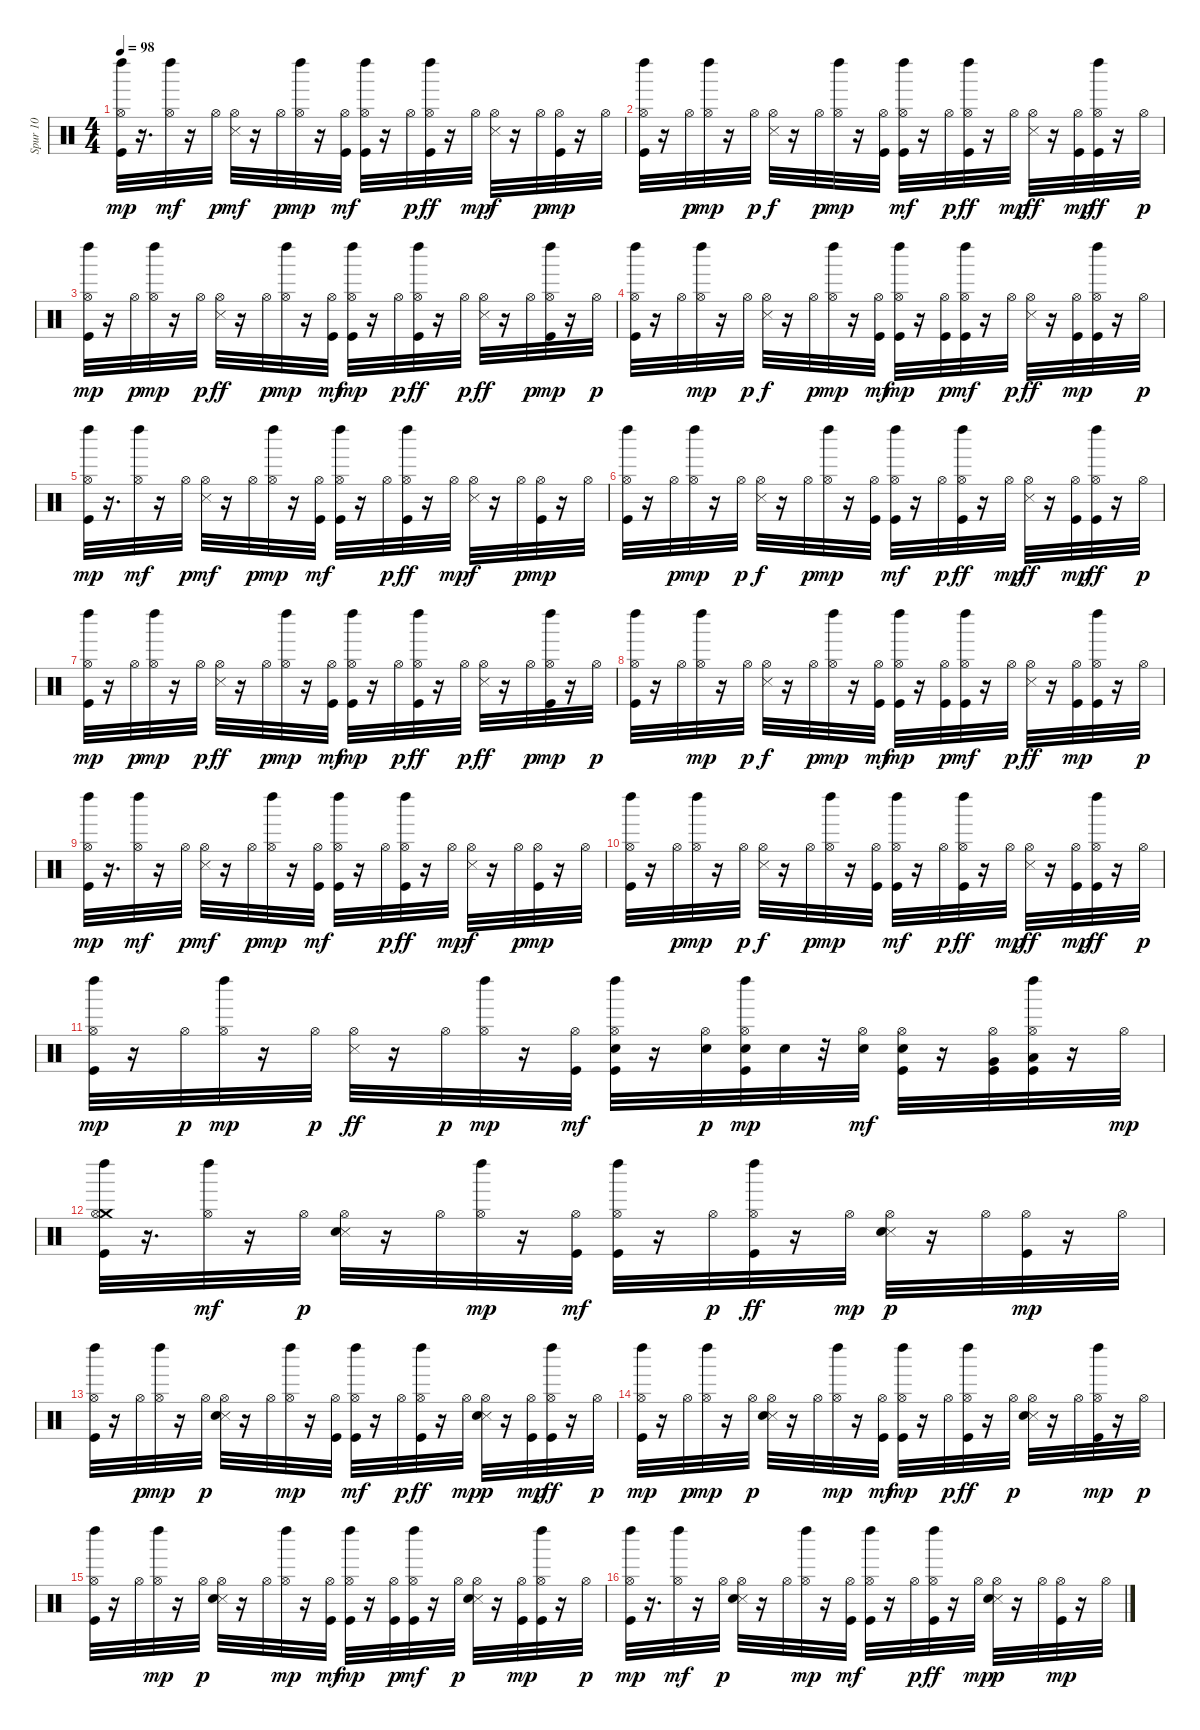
\track ("Spur 10" "Spur 10") {instrument percussion}
\staff {score}
\articulation defaults
\ts (4 4)
\tempo 98
\clef neutral
\ks c
("Hi-Hat (open)" "Kick (hit)" "Left Maraca (hit)").32{dy mp} r.16{d} ("Hi-Hat (open)" "Left Maraca (hit)").32{dy mf} r.16 "Hi-Hat (open)".32{dy p} ("Hi-Hat (open)" "Snare (side stick) 3").32{dy mf} r.16 "Hi-Hat (open)".32{dy p} ("Hi-Hat (open)" "Left Maraca (hit)").32{dy mp} r.16 ("Hi-Hat (open)" "Kick (hit)").32{dy mf} ("Hi-Hat (open)" "Kick (hit)" "Left Maraca (hit)").32 r.16 "Hi-Hat (open)".32{dy p} ("Hi-Hat (open)" "Kick (hit)" "Left Maraca (hit)").32{dy ff} r.16 "Hi-Hat (open)".32{dy mp} ("Hi-Hat (open)" "Snare (side stick) 3").32{dy f} r.16 "Hi-Hat (open)".32{dy p} ("Hi-Hat (open)" "Kick (hit)").32{dy mp} r.16 "Hi-Hat (open)".32 |
("Hi-Hat (open)" "Kick (hit)" "Left Maraca (hit)").32 r.16 "Hi-Hat (open)".32{dy p} ("Hi-Hat (open)" "Left Maraca (hit)").32{dy mp} r.16 "Hi-Hat (open)".32{dy p} ("Hi-Hat (open)" "Snare (side stick) 3").32{dy f} r.16 "Hi-Hat (open)".32{dy p} ("Hi-Hat (open)" "Left Maraca (hit)").32{dy mp} r.16 ("Hi-Hat (open)" "Kick (hit)").32 ("Hi-Hat (open)" "Kick (hit)" "Left Maraca (hit)").32{dy mf} r.16 "Hi-Hat (open)".32{dy p} ("Hi-Hat (open)" "Kick (hit)" "Left Maraca (hit)").32{dy ff} r.16 "Hi-Hat (open)".32{dy mp} ("Hi-Hat (open)" "Snare (side stick) 3").32{dy ff} r.16 ("Hi-Hat (open)" "Kick (hit)").32{dy mp} ("Hi-Hat (open)" "Kick (hit)" "Left Maraca (hit)").32{dy ff} r.16 "Hi-Hat (open)".32{dy p} |
("Hi-Hat (open)" "Kick (hit)" "Left Maraca (hit)").32{dy mp} r.16 "Hi-Hat (open)".32{dy p} ("Hi-Hat (open)" "Left Maraca (hit)").32{dy mp} r.16 "Hi-Hat (open)".32{dy p} ("Hi-Hat (open)" "Snare (side stick) 3").32{dy ff} r.16 "Hi-Hat (open)".32{dy p} ("Hi-Hat (open)" "Left Maraca (hit)").32{dy mp} r.16 ("Hi-Hat (open)" "Kick (hit)").32{dy mf} ("Hi-Hat (open)" "Kick (hit)" "Left Maraca (hit)").32{dy mp} r.16 "Hi-Hat (open)".32{dy p} ("Hi-Hat (open)" "Kick (hit)" "Left Maraca (hit)").32{dy ff} r.16 "Hi-Hat (open)".32{dy p} ("Hi-Hat (open)" "Snare (side stick) 3").32{dy ff} r.16 "Hi-Hat (open)".32{dy p} ("Hi-Hat (open)" "Kick (hit)" "Left Maraca (hit)").32{dy mp} r.16 "Hi-Hat (open)".32{dy p} |
("Hi-Hat (open)" "Kick (hit)" "Left Maraca (hit)").32 r.16 "Hi-Hat (open)".32 ("Hi-Hat (open)" "Left Maraca (hit)").32{dy mp} r.16 "Hi-Hat (open)".32{dy p} ("Hi-Hat (open)" "Snare (side stick) 3").32{dy f} r.16 "Hi-Hat (open)".32{dy p} ("Hi-Hat (open)" "Left Maraca (hit)").32{dy mp} r.16 ("Hi-Hat (open)" "Kick (hit)").32{dy mf} ("Hi-Hat (open)" "Kick (hit)" "Left Maraca (hit)").32{dy mp} r.16 ("Hi-Hat (open)" "Kick (hit)").32{dy p} ("Hi-Hat (open)" "Kick (hit)" "Left Maraca (hit)").32{dy mf} r.16 "Hi-Hat (open)".32{dy p} ("Hi-Hat (open)" "Snare (side stick) 3").32{dy ff} r.16 ("Hi-Hat (open)" "Kick (hit)").32{dy mp} ("Hi-Hat (open)" "Kick (hit)" "Left Maraca (hit)").32 r.16 "Hi-Hat (open)".32{dy p} |
("Hi-Hat (open)" "Kick (hit)" "Left Maraca (hit)").32{dy mp} r.16{d} ("Hi-Hat (open)" "Left Maraca (hit)").32{dy mf} r.16 "Hi-Hat (open)".32{dy p} ("Hi-Hat (open)" "Snare (side stick) 3").32{dy mf} r.16 "Hi-Hat (open)".32{dy p} ("Hi-Hat (open)" "Left Maraca (hit)").32{dy mp} r.16 ("Hi-Hat (open)" "Kick (hit)").32{dy mf} ("Hi-Hat (open)" "Kick (hit)" "Left Maraca (hit)").32 r.16 "Hi-Hat (open)".32{dy p} ("Hi-Hat (open)" "Kick (hit)" "Left Maraca (hit)").32{dy ff} r.16 "Hi-Hat (open)".32{dy mp} ("Hi-Hat (open)" "Snare (side stick) 3").32{dy f} r.16 "Hi-Hat (open)".32{dy p} ("Hi-Hat (open)" "Kick (hit)").32{dy mp} r.16 "Hi-Hat (open)".32 |
("Hi-Hat (open)" "Kick (hit)" "Left Maraca (hit)").32 r.16 "Hi-Hat (open)".32{dy p} ("Hi-Hat (open)" "Left Maraca (hit)").32{dy mp} r.16 "Hi-Hat (open)".32{dy p} ("Hi-Hat (open)" "Snare (side stick) 3").32{dy f} r.16 "Hi-Hat (open)".32{dy p} ("Hi-Hat (open)" "Left Maraca (hit)").32{dy mp} r.16 ("Hi-Hat (open)" "Kick (hit)").32 ("Hi-Hat (open)" "Kick (hit)" "Left Maraca (hit)").32{dy mf} r.16 "Hi-Hat (open)".32{dy p} ("Hi-Hat (open)" "Kick (hit)" "Left Maraca (hit)").32{dy ff} r.16 "Hi-Hat (open)".32{dy mp} ("Hi-Hat (open)" "Snare (side stick) 3").32{dy ff} r.16 ("Hi-Hat (open)" "Kick (hit)").32{dy mp} ("Hi-Hat (open)" "Kick (hit)" "Left Maraca (hit)").32{dy ff} r.16 "Hi-Hat (open)".32{dy p} |
("Hi-Hat (open)" "Kick (hit)" "Left Maraca (hit)").32{dy mp} r.16 "Hi-Hat (open)".32{dy p} ("Hi-Hat (open)" "Left Maraca (hit)").32{dy mp} r.16 "Hi-Hat (open)".32{dy p} ("Hi-Hat (open)" "Snare (side stick) 3").32{dy ff} r.16 "Hi-Hat (open)".32{dy p} ("Hi-Hat (open)" "Left Maraca (hit)").32{dy mp} r.16 ("Hi-Hat (open)" "Kick (hit)").32{dy mf} ("Hi-Hat (open)" "Kick (hit)" "Left Maraca (hit)").32{dy mp} r.16 "Hi-Hat (open)".32{dy p} ("Hi-Hat (open)" "Kick (hit)" "Left Maraca (hit)").32{dy ff} r.16 "Hi-Hat (open)".32{dy p} ("Hi-Hat (open)" "Snare (side stick) 3").32{dy ff} r.16 "Hi-Hat (open)".32{dy p} ("Hi-Hat (open)" "Kick (hit)" "Left Maraca (hit)").32{dy mp} r.16 "Hi-Hat (open)".32{dy p} |
("Hi-Hat (open)" "Kick (hit)" "Left Maraca (hit)").32 r.16 "Hi-Hat (open)".32 ("Hi-Hat (open)" "Left Maraca (hit)").32{dy mp} r.16 "Hi-Hat (open)".32{dy p} ("Hi-Hat (open)" "Snare (side stick) 3").32{dy f} r.16 "Hi-Hat (open)".32{dy p} ("Hi-Hat (open)" "Left Maraca (hit)").32{dy mp} r.16 ("Hi-Hat (open)" "Kick (hit)").32{dy mf} ("Hi-Hat (open)" "Kick (hit)" "Left Maraca (hit)").32{dy mp} r.16 ("Hi-Hat (open)" "Kick (hit)").32{dy p} ("Hi-Hat (open)" "Kick (hit)" "Left Maraca (hit)").32{dy mf} r.16 "Hi-Hat (open)".32{dy p} ("Hi-Hat (open)" "Snare (side stick) 3").32{dy ff} r.16 ("Hi-Hat (open)" "Kick (hit)").32{dy mp} ("Hi-Hat (open)" "Kick (hit)" "Left Maraca (hit)").32 r.16 "Hi-Hat (open)".32{dy p} |
("Hi-Hat (open)" "Kick (hit)" "Left Maraca (hit)").32{dy mp} r.16{d} ("Hi-Hat (open)" "Left Maraca (hit)").32{dy mf} r.16 "Hi-Hat (open)".32{dy p} ("Hi-Hat (open)" "Snare (side stick) 3").32{dy mf} r.16 "Hi-Hat (open)".32{dy p} ("Hi-Hat (open)" "Left Maraca (hit)").32{dy mp} r.16 ("Hi-Hat (open)" "Kick (hit)").32{dy mf} ("Hi-Hat (open)" "Kick (hit)" "Left Maraca (hit)").32 r.16 "Hi-Hat (open)".32{dy p} ("Hi-Hat (open)" "Kick (hit)" "Left Maraca (hit)").32{dy ff} r.16 "Hi-Hat (open)".32{dy mp} ("Hi-Hat (open)" "Snare (side stick) 3").32{dy f} r.16 "Hi-Hat (open)".32{dy p} ("Hi-Hat (open)" "Kick (hit)").32{dy mp} r.16 "Hi-Hat (open)".32 |
("Hi-Hat (open)" "Kick (hit)" "Left Maraca (hit)").32 r.16 "Hi-Hat (open)".32{dy p} ("Hi-Hat (open)" "Left Maraca (hit)").32{dy mp} r.16 "Hi-Hat (open)".32{dy p} ("Hi-Hat (open)" "Snare (side stick) 3").32{dy f} r.16 "Hi-Hat (open)".32{dy p} ("Hi-Hat (open)" "Left Maraca (hit)").32{dy mp} r.16 ("Hi-Hat (open)" "Kick (hit)").32 ("Hi-Hat (open)" "Kick (hit)" "Left Maraca (hit)").32{dy mf} r.16 "Hi-Hat (open)".32{dy p} ("Hi-Hat (open)" "Kick (hit)" "Left Maraca (hit)").32{dy ff} r.16 "Hi-Hat (open)".32{dy mp} ("Hi-Hat (open)" "Snare (side stick) 3").32{dy ff} r.16 ("Hi-Hat (open)" "Kick (hit)").32{dy mp} ("Hi-Hat (open)" "Kick (hit)" "Left Maraca (hit)").32{dy ff} r.16 "Hi-Hat (open)".32{dy p} |
("Hi-Hat (open)" "Kick (hit)" "Left Maraca (hit)").32{dy mp} r.16 "Hi-Hat (open)".32{dy p} ("Hi-Hat (open)" "Left Maraca (hit)").32{dy mp} r.16 "Hi-Hat (open)".32{dy p} ("Hi-Hat (open)" "Snare (side stick) 3").32{dy ff} r.16 "Hi-Hat (open)".32{dy p} ("Hi-Hat (open)" "Left Maraca (hit)").32{dy mp} r.16 ("Hi-Hat (open)" "Kick (hit)").32{dy mf} ("Hi-Hat (open)" "Kick (hit)" "Left Maraca (hit)" "Snare (hit) 2").32 r.16 ("Hi-Hat (open)" "Snare (hit) 2").32{dy p} ("Hi-Hat (open)" "Kick (hit)" "Left Maraca (hit)" "Snare (hit) 2").32{dy mp} "Snare (hit) 2".32 r.32 ("Hi-Hat (open)" "Snare (hit) 2").32{dy mf} ("Hi-Hat (open)" "Kick (hit)" "Snare (hit) 2").32 r.16 ("Hi-Hat (open)" "Kick (hit)" "Very Low Tom (hit)").32 ("Hi-Hat (open)" "Kick (hit)" "Left Maraca (hit)" "Low Floor Tom (hit)").32 r.16 "Hi-Hat (open)".32{dy mp} |
("Crash medium (hit)" "Hi-Hat (open)" "Kick (hit)" "Left Maraca (hit)").32 r.16{d} ("Hi-Hat (open)" "Left Maraca (hit)").32{dy mf} r.16 "Hi-Hat (open)".32{dy p} ("Hi-Hat (open)" "Snare (side stick) 3" "Electric Snare (hit)").32 r.16 "Hi-Hat (open)".32 ("Hi-Hat (open)" "Left Maraca (hit)").32{dy mp} r.16 ("Hi-Hat (open)" "Kick (hit)").32{dy mf} ("Hi-Hat (open)" "Kick (hit)" "Left Maraca (hit)").32 r.16 "Hi-Hat (open)".32{dy p} ("Hi-Hat (open)" "Kick (hit)" "Left Maraca (hit)").32{dy ff} r.16 "Hi-Hat (open)".32{dy mp} ("Hi-Hat (open)" "Snare (side stick) 3" "Electric Snare (hit)").32{dy p} r.16 "Hi-Hat (open)".32 ("Hi-Hat (open)" "Kick (hit)").32{dy mp} r.16 "Hi-Hat (open)".32 |
("Hi-Hat (open)" "Kick (hit)" "Left Maraca (hit)").32 r.16 "Hi-Hat (open)".32{dy p} ("Hi-Hat (open)" "Left Maraca (hit)").32{dy mp} r.16 "Hi-Hat (open)".32{dy p} ("Hi-Hat (open)" "Snare (side stick) 3" "Electric Snare (hit)").32 r.16 "Hi-Hat (open)".32 ("Hi-Hat (open)" "Left Maraca (hit)").32{dy mp} r.16 ("Hi-Hat (open)" "Kick (hit)").32 ("Hi-Hat (open)" "Kick (hit)" "Left Maraca (hit)").32{dy mf} r.16 "Hi-Hat (open)".32{dy p} ("Hi-Hat (open)" "Kick (hit)" "Left Maraca (hit)").32{dy ff} r.16 "Hi-Hat (open)".32{dy mp} ("Hi-Hat (open)" "Snare (side stick) 3" "Electric Snare (hit)").32{dy p} r.16 ("Hi-Hat (open)" "Kick (hit)").32{dy mp} ("Hi-Hat (open)" "Kick (hit)" "Left Maraca (hit)").32{dy ff} r.16 "Hi-Hat (open)".32{dy p} |
("Hi-Hat (open)" "Kick (hit)" "Left Maraca (hit)").32{dy mp} r.16 "Hi-Hat (open)".32{dy p} ("Hi-Hat (open)" "Left Maraca (hit)").32{dy mp} r.16 "Hi-Hat (open)".32{dy p} ("Hi-Hat (open)" "Snare (side stick) 3" "Electric Snare (hit)").32 r.16 "Hi-Hat (open)".32 ("Hi-Hat (open)" "Left Maraca (hit)").32{dy mp} r.16 ("Hi-Hat (open)" "Kick (hit)").32{dy mf} ("Hi-Hat (open)" "Kick (hit)" "Left Maraca (hit)").32{dy mp} r.16 "Hi-Hat (open)".32{dy p} ("Hi-Hat (open)" "Kick (hit)" "Left Maraca (hit)").32{dy ff} r.16 "Hi-Hat (open)".32{dy p} ("Hi-Hat (open)" "Snare (side stick) 3" "Electric Snare (hit)").32 r.16 "Hi-Hat (open)".32 ("Hi-Hat (open)" "Kick (hit)" "Left Maraca (hit)").32{dy mp} r.16 "Hi-Hat (open)".32{dy p} |
("Hi-Hat (open)" "Kick (hit)" "Left Maraca (hit)").32 r.16 "Hi-Hat (open)".32 ("Hi-Hat (open)" "Left Maraca (hit)").32{dy mp} r.16 "Hi-Hat (open)".32{dy p} ("Hi-Hat (open)" "Snare (side stick) 3" "Electric Snare (hit)").32 r.16 "Hi-Hat (open)".32 ("Hi-Hat (open)" "Left Maraca (hit)").32{dy mp} r.16 ("Hi-Hat (open)" "Kick (hit)").32{dy mf} ("Hi-Hat (open)" "Kick (hit)" "Left Maraca (hit)").32{dy mp} r.16 ("Hi-Hat (open)" "Kick (hit)").32{dy p} ("Hi-Hat (open)" "Kick (hit)" "Left Maraca (hit)").32{dy mf} r.16 "Hi-Hat (open)".32{dy p} ("Hi-Hat (open)" "Snare (side stick) 3" "Electric Snare (hit)").32 r.16 ("Hi-Hat (open)" "Kick (hit)").32{dy mp} ("Hi-Hat (open)" "Kick (hit)" "Left Maraca (hit)").32 r.16 "Hi-Hat (open)".32{dy p} |
("Hi-Hat (open)" "Kick (hit)" "Left Maraca (hit)").32{dy mp} r.16{d} ("Hi-Hat (open)" "Left Maraca (hit)").32{dy mf} r.16 "Hi-Hat (open)".32{dy p} ("Hi-Hat (open)" "Snare (side stick) 3" "Electric Snare (hit)").32 r.16 "Hi-Hat (open)".32 ("Hi-Hat (open)" "Left Maraca (hit)").32{dy mp} r.16 ("Hi-Hat (open)" "Kick (hit)").32{dy mf} ("Hi-Hat (open)" "Kick (hit)" "Left Maraca (hit)").32 r.16 "Hi-Hat (open)".32{dy p} ("Hi-Hat (open)" "Kick (hit)" "Left Maraca (hit)").32{dy ff} r.16 "Hi-Hat (open)".32{dy mp} ("Hi-Hat (open)" "Snare (side stick) 3" "Electric Snare (hit)").32{dy p} r.16 "Hi-Hat (open)".32 ("Hi-Hat (open)" "Kick (hit)").32{dy mp} r.16 "Hi-Hat (open)".32
